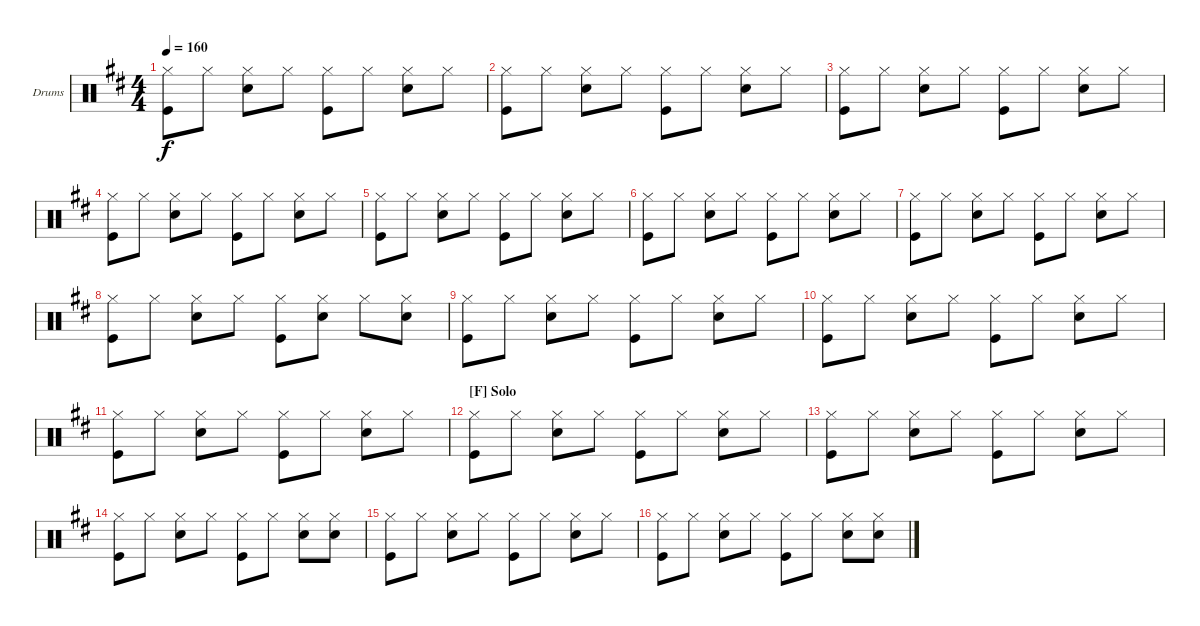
\defaultSystemsLayout 4
\bracketExtendMode groupsimilarinstruments
\firstSystemTrackNameOrientation horizontal
\otherSystemsTrackNameOrientation horizontal
\track ("Drumkit" "Drums") {instrument percussion}
\staff {score}
\articulation defaults
\ts (4 4)
\tempo 160
\clef neutral
\ks d
("Hi-Hat (closed)" "Kick (hit)").8{dy f} "Hi-Hat (closed)".8 ("Hi-Hat (closed)" "Snare (hit) 2").8 "Hi-Hat (closed)".8 ("Hi-Hat (closed)" "Kick (hit)").8 "Hi-Hat (closed)".8 ("Hi-Hat (closed)" "Snare (hit) 2").8 "Hi-Hat (closed)".8 |
("Hi-Hat (closed)" "Kick (hit)").8 "Hi-Hat (closed)".8 ("Hi-Hat (closed)" "Snare (hit) 2").8 "Hi-Hat (closed)".8 ("Hi-Hat (closed)" "Kick (hit)").8 "Hi-Hat (closed)".8 ("Hi-Hat (closed)" "Snare (hit) 2").8 "Hi-Hat (closed)".8 |
("Hi-Hat (closed)" "Kick (hit)").8 "Hi-Hat (closed)".8 ("Hi-Hat (closed)" "Snare (hit) 2").8 "Hi-Hat (closed)".8 ("Hi-Hat (closed)" "Kick (hit)").8 "Hi-Hat (closed)".8 ("Snare (hit) 2" "Hi-Hat (closed)").8 "Hi-Hat (closed)".8 |
("Hi-Hat (closed)" "Kick (hit)").8 "Hi-Hat (closed)".8 ("Hi-Hat (closed)" "Snare (hit) 2").8 "Hi-Hat (closed)".8 ("Hi-Hat (closed)" "Kick (hit)").8 "Hi-Hat (closed)".8 ("Hi-Hat (closed)" "Snare (hit) 2").8 "Hi-Hat (closed)".8 |
("Hi-Hat (closed)" "Kick (hit)").8 "Hi-Hat (closed)".8 ("Hi-Hat (closed)" "Snare (hit) 2").8 "Hi-Hat (closed)".8 ("Hi-Hat (closed)" "Kick (hit)").8 "Hi-Hat (closed)".8 ("Hi-Hat (closed)" "Snare (hit) 2").8 "Hi-Hat (closed)".8 |
("Hi-Hat (closed)" "Kick (hit)").8 "Hi-Hat (closed)".8 ("Hi-Hat (closed)" "Snare (hit) 2").8 "Hi-Hat (closed)".8 ("Hi-Hat (closed)" "Kick (hit)").8 "Hi-Hat (closed)".8 ("Hi-Hat (closed)" "Snare (hit) 2").8 "Hi-Hat (closed)".8 |
("Hi-Hat (closed)" "Kick (hit)").8 "Hi-Hat (closed)".8 ("Hi-Hat (closed)" "Snare (hit) 2").8 "Hi-Hat (closed)".8 ("Hi-Hat (closed)" "Kick (hit)").8 "Hi-Hat (closed)".8 ("Hi-Hat (closed)" "Snare (hit) 2").8 "Hi-Hat (closed)".8 |
("Hi-Hat (closed)" "Kick (hit)").8 "Hi-Hat (closed)".8 ("Hi-Hat (closed)" "Snare (hit) 2").8 "Hi-Hat (closed)".8 ("Hi-Hat (closed)" "Kick (hit)").8 ("Hi-Hat (closed)" "Snare (hit) 2").8 "Hi-Hat (closed)".8 ("Hi-Hat (closed)" "Snare (hit) 2").8 |
("Hi-Hat (closed)" "Kick (hit)").8 "Hi-Hat (closed)".8 ("Hi-Hat (closed)" "Snare (hit) 2").8 "Hi-Hat (closed)".8 ("Hi-Hat (closed)" "Kick (hit)").8 "Hi-Hat (closed)".8 ("Hi-Hat (closed)" "Snare (hit) 2").8 "Hi-Hat (closed)".8 |
("Hi-Hat (closed)" "Kick (hit)").8 "Hi-Hat (closed)".8 ("Hi-Hat (closed)" "Snare (hit) 2").8 "Hi-Hat (closed)".8 ("Hi-Hat (closed)" "Kick (hit)").8 "Hi-Hat (closed)".8 ("Snare (hit) 2" "Hi-Hat (closed)").8 "Hi-Hat (closed)".8 |
("Kick (hit)" "Hi-Hat (closed)").8 "Hi-Hat (closed)".8 ("Snare (hit) 2" "Hi-Hat (closed)").8 "Hi-Hat (closed)".8 ("Kick (hit)" "Hi-Hat (closed)").8 "Hi-Hat (closed)".8 ("Snare (hit) 2" "Hi-Hat (closed)").8 "Hi-Hat (closed)".8 |
\section ("F" "Solo")
("Hi-Hat (closed)" "Kick (hit)").8 "Hi-Hat (closed)".8 ("Hi-Hat (closed)" "Snare (hit) 2").8 "Hi-Hat (closed)".8 ("Kick (hit)" "Hi-Hat (closed)").8 "Hi-Hat (closed)".8 ("Hi-Hat (closed)" "Snare (hit) 2").8 "Hi-Hat (closed)".8 |
("Hi-Hat (closed)" "Kick (hit)").8 "Hi-Hat (closed)".8 ("Hi-Hat (closed)" "Snare (hit) 2").8 "Hi-Hat (closed)".8 ("Hi-Hat (closed)" "Kick (hit)").8 "Hi-Hat (closed)".8 ("Hi-Hat (closed)" "Snare (hit) 2").8 "Hi-Hat (closed)".8 |
("Hi-Hat (closed)" "Kick (hit)").8 "Hi-Hat (closed)".8 ("Hi-Hat (closed)" "Snare (hit) 2").8 "Hi-Hat (closed)".8 ("Hi-Hat (closed)" "Kick (hit)").8 "Hi-Hat (closed)".8 ("Hi-Hat (closed)" "Snare (hit) 2").8 ("Hi-Hat (closed)" "Snare (hit) 2").8 |
("Hi-Hat (closed)" "Kick (hit)").8 "Hi-Hat (closed)".8 ("Hi-Hat (closed)" "Snare (hit) 2").8 "Hi-Hat (closed)".8 ("Hi-Hat (closed)" "Kick (hit)").8 "Hi-Hat (closed)".8 ("Hi-Hat (closed)" "Snare (hit) 2").8 "Hi-Hat (closed)".8 |
("Hi-Hat (closed)" "Kick (hit)").8 "Hi-Hat (closed)".8 ("Hi-Hat (closed)" "Snare (hit) 2").8 "Hi-Hat (closed)".8 ("Hi-Hat (closed)" "Kick (hit)").8 "Hi-Hat (closed)".8 ("Snare (hit) 2" "Hi-Hat (closed)").8 ("Hi-Hat (closed)" "Snare (hit) 2").8
